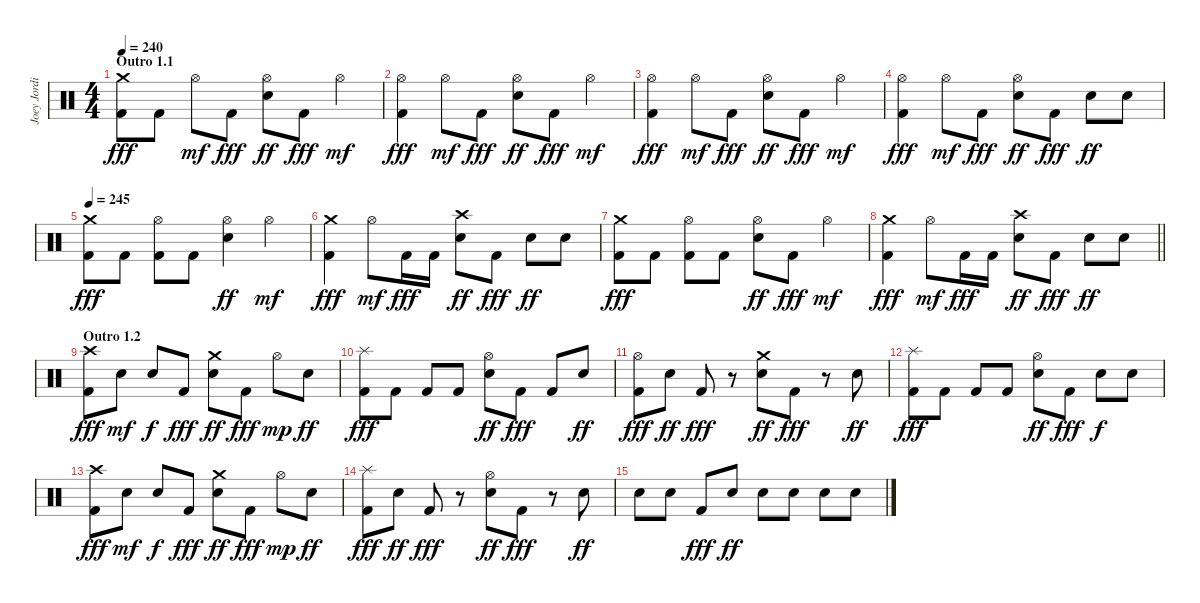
\track ("Joey Jordison" "Joey Jordi") {instrument percussion}
\staff {score}
\articulation defaults
\ts (4 4)
\section ("" "Outro 1.1")
\tempo 240
\clef neutral
\ks c
("Crash medium (hit)" "Kick (hit) 2").8{dy fff} "Kick (hit) 2".8 "Hi-Hat (open)".8{dy mf} "Kick (hit) 2".8{dy fff} ("Hi-Hat (open)" "Electric Snare (hit)").8{dy ff} "Kick (hit) 2".8{dy fff} "Hi-Hat (open)".4{dy mf} |
("Hi-Hat (open)" "Kick (hit) 2").4{dy fff} "Hi-Hat (open)".8{dy mf} "Kick (hit) 2".8{dy fff} ("Hi-Hat (open)" "Electric Snare (hit)").8{dy ff} "Kick (hit) 2".8{dy fff} "Hi-Hat (open)".4{dy mf} |
("Hi-Hat (open)" "Kick (hit) 2").4{dy fff} "Hi-Hat (open)".8{dy mf} "Kick (hit) 2".8{dy fff} ("Hi-Hat (open)" "Electric Snare (hit)").8{dy ff} "Kick (hit) 2".8{dy fff} "Hi-Hat (open)".4{dy mf} |
("Hi-Hat (open)" "Kick (hit) 2").4{dy fff} "Hi-Hat (open)".8{dy mf} "Kick (hit) 2".8{dy fff} ("Hi-Hat (open)" "Electric Snare (hit)").8{dy ff} "Kick (hit) 2".8{dy fff} "Electric Snare (hit)".8{dy ff} "Electric Snare (hit)".8 |
\tempo 245
("Crash medium (hit)" "Kick (hit) 2").8{dy fff} "Kick (hit) 2".8 ("Hi-Hat (open)" "Kick (hit) 2").8 "Kick (hit) 2".8 ("Hi-Hat (open)" "Electric Snare (hit)").4{dy ff} "Hi-Hat (open)".4{dy mf} |
("Crash medium (hit)" "Kick (hit) 2").4{dy fff} "Hi-Hat (open)".8{dy mf} "Kick (hit) 2".16{dy fff} "Kick (hit) 2".16 ("Crash high (hit)" "Electric Snare (hit)").8{dy ff} "Kick (hit) 2".8{dy fff} "Electric Snare (hit)".8{dy ff} "Electric Snare (hit)".8 |
("Crash medium (hit)" "Kick (hit) 2").8{dy fff} "Kick (hit) 2".8 ("Hi-Hat (open)" "Kick (hit) 2").8 "Kick (hit) 2".8 ("Hi-Hat (open)" "Electric Snare (hit)").8{dy ff} "Kick (hit) 2".8{dy fff} "Hi-Hat (open)".4{dy mf} |
\barLineRight lightlight
("Crash medium (hit)" "Kick (hit) 2").4{dy fff} "Hi-Hat (open)".8{dy mf} "Kick (hit) 2".16{dy fff} "Kick (hit) 2".16 ("Crash high (hit)" "Electric Snare (hit)").8{dy ff} "Kick (hit) 2".8{dy fff} "Electric Snare (hit)".8{dy ff} "Electric Snare (hit)".8 |
\section ("" "Outro 1.2")
("Crash high (hit)" "Kick (hit) 2").8{dy fff} "Electric Snare (hit)".8{dy mf} "Electric Snare (hit)".8{dy f} "Kick (hit) 2".8{dy fff} ("Crash medium (hit)" "Electric Snare (hit)").8{dy ff} "Kick (hit) 2".8{dy fff} "Hi-Hat (open)".8{dy mp} "Electric Snare (hit)".8{dy ff} |
("Splash (hit)" "Kick (hit) 2").8{dy fff} "Kick (hit) 2".8 "Kick (hit) 2".8 "Kick (hit) 2".8 ("Hi-Hat (open)" "Electric Snare (hit)").8{dy ff} "Kick (hit) 2".8{dy fff} "Kick (hit) 2".8 "Electric Snare (hit)".8{dy ff} |
("Hi-Hat (open)" "Kick (hit) 2").8{dy fff} "Electric Snare (hit)".8{dy ff} "Kick (hit) 2".8{dy fff} r.8 ("Crash medium (hit)" "Electric Snare (hit)").8{dy ff} "Kick (hit) 2".8{dy fff} r.8 "Electric Snare (hit)".8{dy ff} |
("Splash (hit)" "Kick (hit) 2").8{dy fff} "Kick (hit) 2".8 "Kick (hit) 2".8 "Kick (hit) 2".8 ("Hi-Hat (open)" "Electric Snare (hit)").8{dy ff} "Kick (hit) 2".8{dy fff} "Electric Snare (hit)".8{dy f} "Electric Snare (hit)".8 |
("Crash high (hit)" "Kick (hit) 2").8{dy fff} "Electric Snare (hit)".8{dy mf} "Electric Snare (hit)".8{dy f} "Kick (hit) 2".8{dy fff} ("Crash medium (hit)" "Electric Snare (hit)").8{dy ff} "Kick (hit) 2".8{dy fff} "Hi-Hat (open)".8{dy mp} "Electric Snare (hit)".8{dy ff} |
("Splash (hit)" "Kick (hit) 2").8{dy fff} "Electric Snare (hit)".8{dy ff} "Kick (hit) 2".8{dy fff} r.8 ("Hi-Hat (open)" "Electric Snare (hit)").8{dy ff} "Kick (hit) 2".8{dy fff} r.8 "Electric Snare (hit)".8{dy ff} |
"Electric Snare (hit)".8 "Electric Snare (hit)".8 "Kick (hit) 2".8{dy fff} "Electric Snare (hit)".8{dy ff} "Electric Snare (hit)".8 "Electric Snare (hit)".8 "Electric Snare (hit)".8 "Electric Snare (hit)".8
